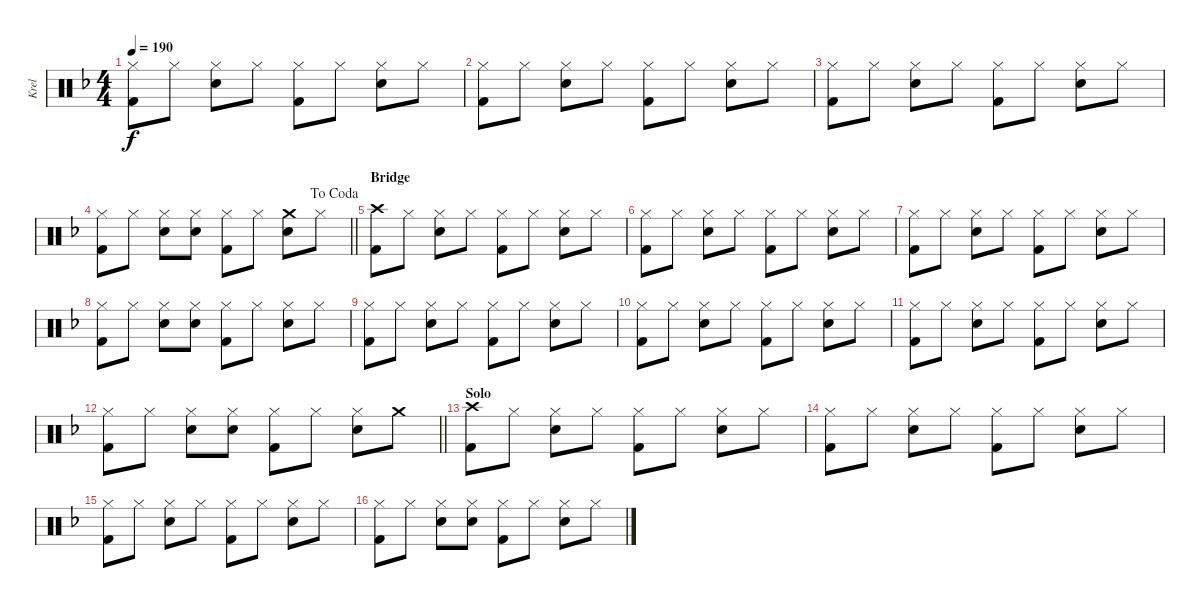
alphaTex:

\track ("Krel" "Krel") {instrument percussion}
\staff {score}
\articulation defaults
\ts (4 4)
\tempo 190
\clef neutral
\ks f
("Hi-Hat (closed)" "Kick (hit) 2").8{dy f} "Hi-Hat (closed)".8 ("Hi-Hat (closed)" "Snare (hit) 2").8 "Hi-Hat (closed)".8 ("Hi-Hat (closed)" "Kick (hit) 2").8 "Hi-Hat (closed)".8 ("Hi-Hat (closed)" "Snare (hit) 2").8 "Hi-Hat (closed)".8 |
("Hi-Hat (closed)" "Kick (hit) 2").8 "Hi-Hat (closed)".8 ("Hi-Hat (closed)" "Snare (hit) 2").8 "Hi-Hat (closed)".8 ("Hi-Hat (closed)" "Kick (hit) 2").8 "Hi-Hat (closed)".8 ("Hi-Hat (closed)" "Snare (hit) 2").8 "Hi-Hat (closed)".8 |
("Hi-Hat (closed)" "Kick (hit) 2").8 "Hi-Hat (closed)".8 ("Hi-Hat (closed)" "Snare (hit) 2").8 "Hi-Hat (closed)".8 ("Hi-Hat (closed)" "Kick (hit) 2").8 "Hi-Hat (closed)".8 ("Hi-Hat (closed)" "Snare (hit) 2").8 "Hi-Hat (closed)".8 |
\jump dacoda
\barLineRight lightlight
("Hi-Hat (closed)" "Kick (hit) 2").8 "Hi-Hat (closed)".8 ("Hi-Hat (closed)" "Snare (hit) 2").8 ("Hi-Hat (closed)" "Snare (hit) 2").8 ("Hi-Hat (closed)" "Kick (hit) 2").8 "Hi-Hat (closed)".8 ("Crash medium (hit)" "Snare (hit) 2").8 "Hi-Hat (closed)".8 |
\section ("" "Bridge")
("Crash high (hit)" "Kick (hit) 2").8 "Hi-Hat (closed)".8 ("Hi-Hat (closed)" "Snare (hit) 2").8 "Hi-Hat (closed)".8 ("Hi-Hat (closed)" "Kick (hit) 2").8 "Hi-Hat (closed)".8 ("Hi-Hat (closed)" "Snare (hit) 2").8 "Hi-Hat (closed)".8 |
("Hi-Hat (closed)" "Kick (hit) 2").8 "Hi-Hat (closed)".8 ("Hi-Hat (closed)" "Snare (hit) 2").8 "Hi-Hat (closed)".8 ("Hi-Hat (closed)" "Kick (hit) 2").8 "Hi-Hat (closed)".8 ("Hi-Hat (closed)" "Snare (hit) 2").8 "Hi-Hat (closed)".8 |
("Hi-Hat (closed)" "Kick (hit) 2").8 "Hi-Hat (closed)".8 ("Hi-Hat (closed)" "Snare (hit) 2").8 "Hi-Hat (closed)".8 ("Hi-Hat (closed)" "Kick (hit) 2").8 "Hi-Hat (closed)".8 ("Hi-Hat (closed)" "Snare (hit) 2").8 "Hi-Hat (closed)".8 |
("Hi-Hat (closed)" "Kick (hit) 2").8 "Hi-Hat (closed)".8 ("Hi-Hat (closed)" "Snare (hit) 2").8 ("Hi-Hat (closed)" "Snare (hit) 2").8 ("Hi-Hat (closed)" "Kick (hit) 2").8 "Hi-Hat (closed)".8 ("Hi-Hat (closed)" "Snare (hit) 2").8 "Hi-Hat (closed)".8 |
("Hi-Hat (closed)" "Kick (hit) 2").8 "Hi-Hat (closed)".8 ("Hi-Hat (closed)" "Snare (hit) 2").8 "Hi-Hat (closed)".8 ("Hi-Hat (closed)" "Kick (hit) 2").8 "Hi-Hat (closed)".8 ("Hi-Hat (closed)" "Snare (hit) 2").8 "Hi-Hat (closed)".8 |
("Hi-Hat (closed)" "Kick (hit) 2").8 "Hi-Hat (closed)".8 ("Hi-Hat (closed)" "Snare (hit) 2").8 "Hi-Hat (closed)".8 ("Hi-Hat (closed)" "Kick (hit) 2").8 "Hi-Hat (closed)".8 ("Hi-Hat (closed)" "Snare (hit) 2").8 "Hi-Hat (closed)".8 |
("Hi-Hat (closed)" "Kick (hit) 2").8 "Hi-Hat (closed)".8 ("Hi-Hat (closed)" "Snare (hit) 2").8 "Hi-Hat (closed)".8 ("Hi-Hat (closed)" "Kick (hit) 2").8 "Hi-Hat (closed)".8 ("Hi-Hat (closed)" "Snare (hit) 2").8 "Hi-Hat (closed)".8 |
\barLineRight lightlight
("Hi-Hat (closed)" "Kick (hit) 2").8 "Hi-Hat (closed)".8 ("Hi-Hat (closed)" "Snare (hit) 2").8 ("Hi-Hat (closed)" "Snare (hit) 2").8 ("Hi-Hat (closed)" "Kick (hit) 2").8 "Hi-Hat (closed)".8 ("Hi-Hat (closed)" "Snare (hit) 2").8 "Crash medium (hit)".8 |
\section ("" "Solo")
("Crash high (hit)" "Kick (hit) 2").8 "Hi-Hat (closed)".8 ("Hi-Hat (closed)" "Snare (hit) 2").8 "Hi-Hat (closed)".8 ("Hi-Hat (closed)" "Kick (hit) 2").8 "Hi-Hat (closed)".8 ("Hi-Hat (closed)" "Snare (hit) 2").8 "Hi-Hat (closed)".8 |
("Hi-Hat (closed)" "Kick (hit) 2").8 "Hi-Hat (closed)".8 ("Hi-Hat (closed)" "Snare (hit) 2").8 "Hi-Hat (closed)".8 ("Hi-Hat (closed)" "Kick (hit) 2").8 "Hi-Hat (closed)".8 ("Hi-Hat (closed)" "Snare (hit) 2").8 "Hi-Hat (closed)".8 |
("Hi-Hat (closed)" "Kick (hit) 2").8 "Hi-Hat (closed)".8 ("Hi-Hat (closed)" "Snare (hit) 2").8 "Hi-Hat (closed)".8 ("Hi-Hat (closed)" "Kick (hit) 2").8 "Hi-Hat (closed)".8 ("Hi-Hat (closed)" "Snare (hit) 2").8 "Hi-Hat (closed)".8 |
("Hi-Hat (closed)" "Kick (hit) 2").8 "Hi-Hat (closed)".8 ("Hi-Hat (closed)" "Snare (hit) 2").8 ("Hi-Hat (closed)" "Snare (hit) 2").8 ("Hi-Hat (closed)" "Kick (hit) 2").8 "Hi-Hat (closed)".8 ("Hi-Hat (closed)" "Snare (hit) 2").8 "Hi-Hat (closed)".8
